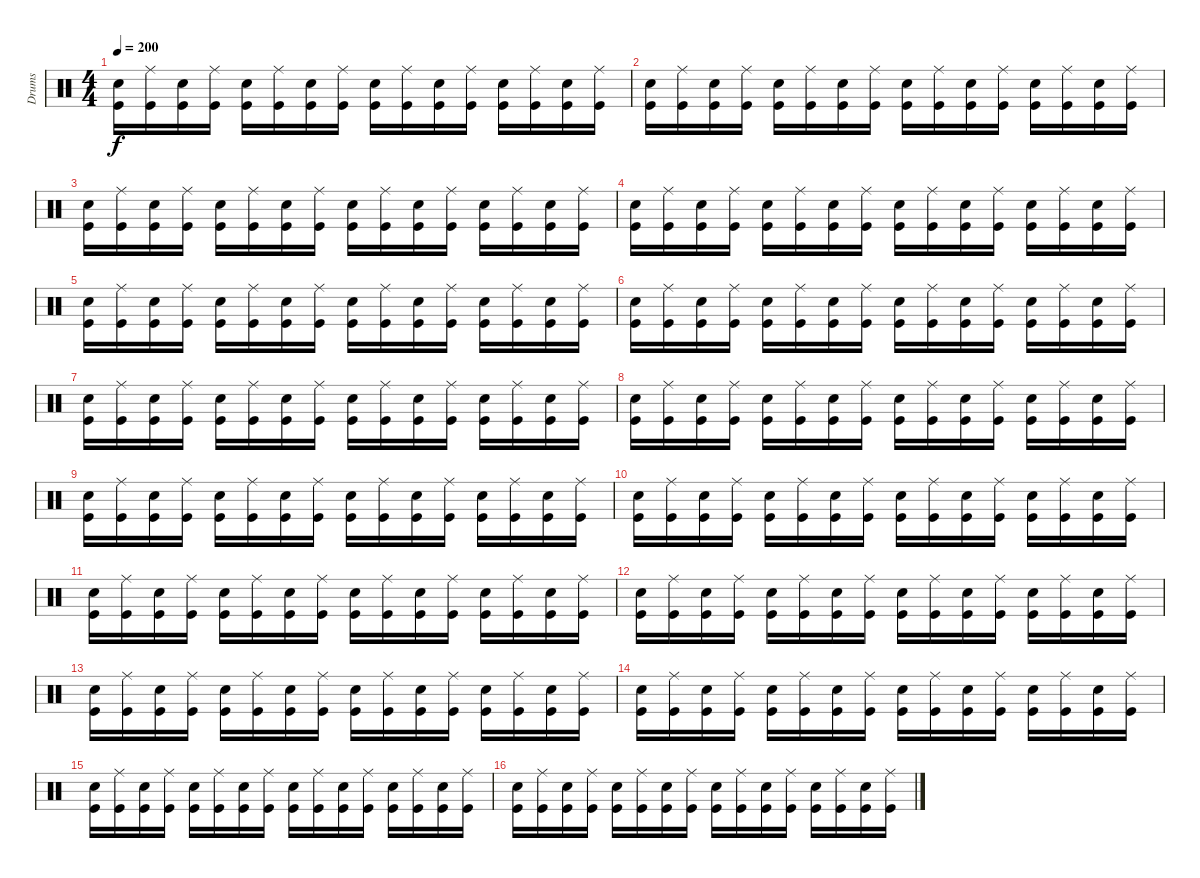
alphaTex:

\track ("Drums" "Drums") {instrument percussion}
\staff {score}
\articulation defaults
\ts (4 4)
\tempo 200
\clef neutral
\ks c
("Electric Snare (hit)" "Kick (hit)").16{dy f} ("Ride (middle)" "Kick (hit)").16 ("Electric Snare (hit)" "Kick (hit)").16 ("Ride (middle)" "Kick (hit)").16 ("Electric Snare (hit)" "Kick (hit)").16 ("Ride (middle)" "Kick (hit)").16 ("Electric Snare (hit)" "Kick (hit)").16 ("Ride (middle)" "Kick (hit)").16 ("Electric Snare (hit)" "Kick (hit)").16 ("Ride (middle)" "Kick (hit)").16 ("Electric Snare (hit)" "Kick (hit)").16 ("Ride (middle)" "Kick (hit)").16 ("Electric Snare (hit)" "Kick (hit)").16 ("Ride (middle)" "Kick (hit)").16 ("Electric Snare (hit)" "Kick (hit)").16 ("Ride (middle)" "Kick (hit)").16 |
("Electric Snare (hit)" "Kick (hit)").16 ("Ride (middle)" "Kick (hit)").16 ("Electric Snare (hit)" "Kick (hit)").16 ("Ride (middle)" "Kick (hit)").16 ("Electric Snare (hit)" "Kick (hit)").16 ("Ride (middle)" "Kick (hit)").16 ("Electric Snare (hit)" "Kick (hit)").16 ("Ride (middle)" "Kick (hit)").16 ("Electric Snare (hit)" "Kick (hit)").16 ("Ride (middle)" "Kick (hit)").16 ("Electric Snare (hit)" "Kick (hit)").16 ("Ride (middle)" "Kick (hit)").16 ("Electric Snare (hit)" "Kick (hit)").16 ("Ride (middle)" "Kick (hit)").16 ("Electric Snare (hit)" "Kick (hit)").16 ("Ride (middle)" "Kick (hit)").16 |
("Electric Snare (hit)" "Kick (hit)").16 ("Ride (middle)" "Kick (hit)").16 ("Electric Snare (hit)" "Kick (hit)").16 ("Ride (middle)" "Kick (hit)").16 ("Electric Snare (hit)" "Kick (hit)").16 ("Ride (middle)" "Kick (hit)").16 ("Electric Snare (hit)" "Kick (hit)").16 ("Ride (middle)" "Kick (hit)").16 ("Electric Snare (hit)" "Kick (hit)").16 ("Ride (middle)" "Kick (hit)").16 ("Electric Snare (hit)" "Kick (hit)").16 ("Ride (middle)" "Kick (hit)").16 ("Electric Snare (hit)" "Kick (hit)").16 ("Ride (middle)" "Kick (hit)").16 ("Electric Snare (hit)" "Kick (hit)").16 ("Ride (middle)" "Kick (hit)").16 |
("Electric Snare (hit)" "Kick (hit)").16 ("Ride (middle)" "Kick (hit)").16 ("Electric Snare (hit)" "Kick (hit)").16 ("Ride (middle)" "Kick (hit)").16 ("Electric Snare (hit)" "Kick (hit)").16 ("Ride (middle)" "Kick (hit)").16 ("Electric Snare (hit)" "Kick (hit)").16 ("Ride (middle)" "Kick (hit)").16 ("Electric Snare (hit)" "Kick (hit)").16 ("Ride (middle)" "Kick (hit)").16 ("Electric Snare (hit)" "Kick (hit)").16 ("Ride (middle)" "Kick (hit)").16 ("Electric Snare (hit)" "Kick (hit)").16 ("Ride (middle)" "Kick (hit)").16 ("Electric Snare (hit)" "Kick (hit)").16 ("Ride (middle)" "Kick (hit)").16 |
("Electric Snare (hit)" "Kick (hit)").16 ("Ride (middle)" "Kick (hit)").16 ("Electric Snare (hit)" "Kick (hit)").16 ("Ride (middle)" "Kick (hit)").16 ("Electric Snare (hit)" "Kick (hit)").16 ("Ride (middle)" "Kick (hit)").16 ("Electric Snare (hit)" "Kick (hit)").16 ("Ride (middle)" "Kick (hit)").16 ("Electric Snare (hit)" "Kick (hit)").16 ("Ride (middle)" "Kick (hit)").16 ("Electric Snare (hit)" "Kick (hit)").16 ("Ride (middle)" "Kick (hit)").16 ("Electric Snare (hit)" "Kick (hit)").16 ("Ride (middle)" "Kick (hit)").16 ("Electric Snare (hit)" "Kick (hit)").16 ("Ride (middle)" "Kick (hit)").16 |
("Electric Snare (hit)" "Kick (hit)").16 ("Ride (middle)" "Kick (hit)").16 ("Electric Snare (hit)" "Kick (hit)").16 ("Ride (middle)" "Kick (hit)").16 ("Electric Snare (hit)" "Kick (hit)").16 ("Ride (middle)" "Kick (hit)").16 ("Electric Snare (hit)" "Kick (hit)").16 ("Ride (middle)" "Kick (hit)").16 ("Electric Snare (hit)" "Kick (hit)").16 ("Ride (middle)" "Kick (hit)").16 ("Electric Snare (hit)" "Kick (hit)").16 ("Ride (middle)" "Kick (hit)").16 ("Electric Snare (hit)" "Kick (hit)").16 ("Ride (middle)" "Kick (hit)").16 ("Electric Snare (hit)" "Kick (hit)").16 ("Ride (middle)" "Kick (hit)").16 |
("Electric Snare (hit)" "Kick (hit)").16 ("Ride (middle)" "Kick (hit)").16 ("Electric Snare (hit)" "Kick (hit)").16 ("Ride (middle)" "Kick (hit)").16 ("Electric Snare (hit)" "Kick (hit)").16 ("Ride (middle)" "Kick (hit)").16 ("Electric Snare (hit)" "Kick (hit)").16 ("Ride (middle)" "Kick (hit)").16 ("Electric Snare (hit)" "Kick (hit)").16 ("Ride (middle)" "Kick (hit)").16 ("Electric Snare (hit)" "Kick (hit)").16 ("Ride (middle)" "Kick (hit)").16 ("Electric Snare (hit)" "Kick (hit)").16 ("Ride (middle)" "Kick (hit)").16 ("Electric Snare (hit)" "Kick (hit)").16 ("Ride (middle)" "Kick (hit)").16 |
("Electric Snare (hit)" "Kick (hit)").16 ("Ride (middle)" "Kick (hit)").16 ("Electric Snare (hit)" "Kick (hit)").16 ("Ride (middle)" "Kick (hit)").16 ("Electric Snare (hit)" "Kick (hit)").16 ("Ride (middle)" "Kick (hit)").16 ("Electric Snare (hit)" "Kick (hit)").16 ("Ride (middle)" "Kick (hit)").16 ("Electric Snare (hit)" "Kick (hit)").16 ("Ride (middle)" "Kick (hit)").16 ("Electric Snare (hit)" "Kick (hit)").16 ("Ride (middle)" "Kick (hit)").16 ("Electric Snare (hit)" "Kick (hit)").16 ("Ride (middle)" "Kick (hit)").16 ("Electric Snare (hit)" "Kick (hit)").16 ("Ride (middle)" "Kick (hit)").16 |
("Electric Snare (hit)" "Kick (hit)").16 ("Ride (middle)" "Kick (hit)").16 ("Electric Snare (hit)" "Kick (hit)").16 ("Ride (middle)" "Kick (hit)").16 ("Electric Snare (hit)" "Kick (hit)").16 ("Ride (middle)" "Kick (hit)").16 ("Electric Snare (hit)" "Kick (hit)").16 ("Ride (middle)" "Kick (hit)").16 ("Electric Snare (hit)" "Kick (hit)").16 ("Ride (middle)" "Kick (hit)").16 ("Electric Snare (hit)" "Kick (hit)").16 ("Ride (middle)" "Kick (hit)").16 ("Electric Snare (hit)" "Kick (hit)").16 ("Ride (middle)" "Kick (hit)").16 ("Electric Snare (hit)" "Kick (hit)").16 ("Ride (middle)" "Kick (hit)").16 |
("Electric Snare (hit)" "Kick (hit)").16 ("Ride (middle)" "Kick (hit)").16 ("Electric Snare (hit)" "Kick (hit)").16 ("Ride (middle)" "Kick (hit)").16 ("Electric Snare (hit)" "Kick (hit)").16 ("Ride (middle)" "Kick (hit)").16 ("Electric Snare (hit)" "Kick (hit)").16 ("Ride (middle)" "Kick (hit)").16 ("Electric Snare (hit)" "Kick (hit)").16 ("Ride (middle)" "Kick (hit)").16 ("Electric Snare (hit)" "Kick (hit)").16 ("Ride (middle)" "Kick (hit)").16 ("Electric Snare (hit)" "Kick (hit)").16 ("Ride (middle)" "Kick (hit)").16 ("Electric Snare (hit)" "Kick (hit)").16 ("Ride (middle)" "Kick (hit)").16 |
("Electric Snare (hit)" "Kick (hit)").16 ("Ride (middle)" "Kick (hit)").16 ("Electric Snare (hit)" "Kick (hit)").16 ("Ride (middle)" "Kick (hit)").16 ("Electric Snare (hit)" "Kick (hit)").16 ("Ride (middle)" "Kick (hit)").16 ("Electric Snare (hit)" "Kick (hit)").16 ("Ride (middle)" "Kick (hit)").16 ("Electric Snare (hit)" "Kick (hit)").16 ("Ride (middle)" "Kick (hit)").16 ("Electric Snare (hit)" "Kick (hit)").16 ("Ride (middle)" "Kick (hit)").16 ("Electric Snare (hit)" "Kick (hit)").16 ("Ride (middle)" "Kick (hit)").16 ("Electric Snare (hit)" "Kick (hit)").16 ("Ride (middle)" "Kick (hit)").16 |
("Electric Snare (hit)" "Kick (hit)").16 ("Ride (middle)" "Kick (hit)").16 ("Electric Snare (hit)" "Kick (hit)").16 ("Ride (middle)" "Kick (hit)").16 ("Electric Snare (hit)" "Kick (hit)").16 ("Ride (middle)" "Kick (hit)").16 ("Electric Snare (hit)" "Kick (hit)").16 ("Ride (middle)" "Kick (hit)").16 ("Electric Snare (hit)" "Kick (hit)").16 ("Ride (middle)" "Kick (hit)").16 ("Electric Snare (hit)" "Kick (hit)").16 ("Ride (middle)" "Kick (hit)").16 ("Electric Snare (hit)" "Kick (hit)").16 ("Ride (middle)" "Kick (hit)").16 ("Electric Snare (hit)" "Kick (hit)").16 ("Ride (middle)" "Kick (hit)").16 |
("Electric Snare (hit)" "Kick (hit)").16 ("Ride (middle)" "Kick (hit)").16 ("Electric Snare (hit)" "Kick (hit)").16 ("Ride (middle)" "Kick (hit)").16 ("Electric Snare (hit)" "Kick (hit)").16 ("Ride (middle)" "Kick (hit)").16 ("Electric Snare (hit)" "Kick (hit)").16 ("Ride (middle)" "Kick (hit)").16 ("Electric Snare (hit)" "Kick (hit)").16 ("Ride (middle)" "Kick (hit)").16 ("Electric Snare (hit)" "Kick (hit)").16 ("Ride (middle)" "Kick (hit)").16 ("Electric Snare (hit)" "Kick (hit)").16 ("Ride (middle)" "Kick (hit)").16 ("Electric Snare (hit)" "Kick (hit)").16 ("Ride (middle)" "Kick (hit)").16 |
("Electric Snare (hit)" "Kick (hit)").16 ("Ride (middle)" "Kick (hit)").16 ("Electric Snare (hit)" "Kick (hit)").16 ("Ride (middle)" "Kick (hit)").16 ("Electric Snare (hit)" "Kick (hit)").16 ("Ride (middle)" "Kick (hit)").16 ("Electric Snare (hit)" "Kick (hit)").16 ("Ride (middle)" "Kick (hit)").16 ("Electric Snare (hit)" "Kick (hit)").16 ("Ride (middle)" "Kick (hit)").16 ("Electric Snare (hit)" "Kick (hit)").16 ("Ride (middle)" "Kick (hit)").16 ("Electric Snare (hit)" "Kick (hit)").16 ("Ride (middle)" "Kick (hit)").16 ("Electric Snare (hit)" "Kick (hit)").16 ("Ride (middle)" "Kick (hit)").16 |
("Electric Snare (hit)" "Kick (hit)").16 ("Ride (middle)" "Kick (hit)").16 ("Electric Snare (hit)" "Kick (hit)").16 ("Ride (middle)" "Kick (hit)").16 ("Electric Snare (hit)" "Kick (hit)").16 ("Ride (middle)" "Kick (hit)").16 ("Electric Snare (hit)" "Kick (hit)").16 ("Ride (middle)" "Kick (hit)").16 ("Electric Snare (hit)" "Kick (hit)").16 ("Ride (middle)" "Kick (hit)").16 ("Electric Snare (hit)" "Kick (hit)").16 ("Ride (middle)" "Kick (hit)").16 ("Electric Snare (hit)" "Kick (hit)").16 ("Ride (middle)" "Kick (hit)").16 ("Electric Snare (hit)" "Kick (hit)").16 ("Ride (middle)" "Kick (hit)").16 |
("Electric Snare (hit)" "Kick (hit)").16 ("Ride (middle)" "Kick (hit)").16 ("Electric Snare (hit)" "Kick (hit)").16 ("Ride (middle)" "Kick (hit)").16 ("Electric Snare (hit)" "Kick (hit)").16 ("Ride (middle)" "Kick (hit)").16 ("Electric Snare (hit)" "Kick (hit)").16 ("Ride (middle)" "Kick (hit)").16 ("Electric Snare (hit)" "Kick (hit)").16 ("Ride (middle)" "Kick (hit)").16 ("Electric Snare (hit)" "Kick (hit)").16 ("Ride (middle)" "Kick (hit)").16 ("Electric Snare (hit)" "Kick (hit)").16 ("Ride (middle)" "Kick (hit)").16 ("Electric Snare (hit)" "Kick (hit)").16 ("Ride (middle)" "Kick (hit)").16
